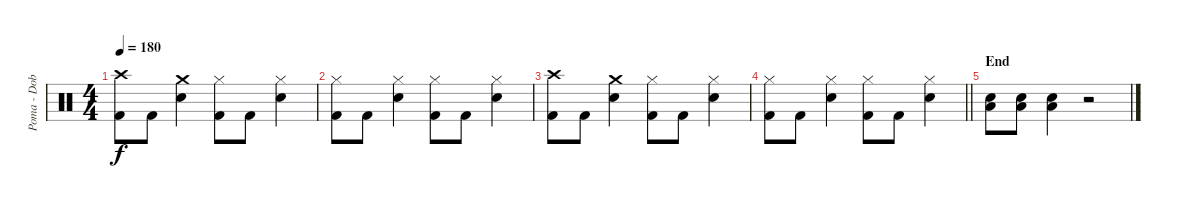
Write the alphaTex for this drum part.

\track ("Poma - Dob" "Poma - Dob") {instrument percussion}
\staff {score}
\articulation defaults
\ts (4 4)
\tempo 180
\clef neutral
\ks c
("Crash high (hit)" "Kick (hit) 2").8{dy f} "Kick (hit) 2".8 ("Crash medium (hit)" "Electric Snare (hit)").4 ("Hi-Hat (closed)" "Kick (hit) 2").8 "Kick (hit) 2".8 ("Hi-Hat (closed)" "Electric Snare (hit)").4 |
("Hi-Hat (closed)" "Kick (hit) 2").8 "Kick (hit) 2".8 ("Hi-Hat (closed)" "Electric Snare (hit)").4 ("Hi-Hat (closed)" "Kick (hit) 2").8 "Kick (hit) 2".8 ("Hi-Hat (closed)" "Electric Snare (hit)").4 |
("Crash high (hit)" "Kick (hit) 2").8 "Kick (hit) 2".8 ("Crash medium (hit)" "Electric Snare (hit)").4 ("Hi-Hat (closed)" "Kick (hit) 2").8 "Kick (hit) 2".8 ("Hi-Hat (closed)" "Electric Snare (hit)").4 |
\barLineRight lightlight
("Hi-Hat (closed)" "Kick (hit) 2").8 "Kick (hit) 2".8 ("Hi-Hat (closed)" "Electric Snare (hit)").4 ("Hi-Hat (closed)" "Kick (hit) 2").8 "Kick (hit) 2".8 ("Hi-Hat (closed)" "Electric Snare (hit)").4 |
\section ("" "End")
("Electric Snare (hit)" "Low Tom (hit)").8 ("Electric Snare (hit)" "Low Tom (hit)").8 ("Electric Snare (hit)" "Low Tom (hit)").4 r.2
